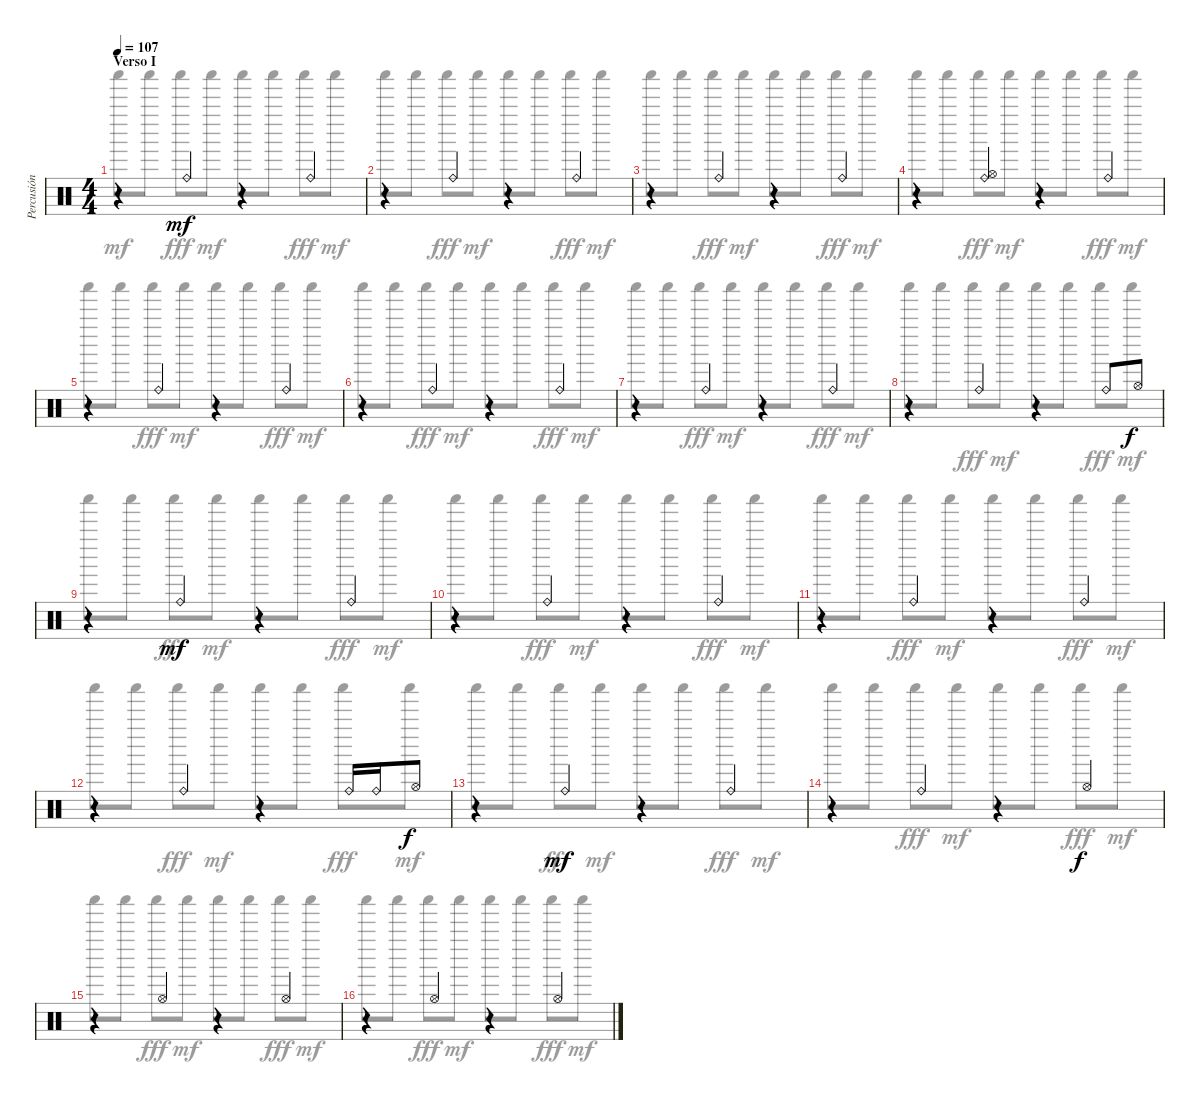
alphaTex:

\track ("Percusión" "Percusión") {instrument percussion}
\staff {score}
\articulation defaults
\voice
\ts (4 4)
\section ("" "Verso I")
\tempo 107
\clef neutral
\ks c
r.4{dy f} "Ride (bell)".4{dy mf} r.4 "Ride (bell)".4 |
r.4 "Ride (bell)".4 r.4 "Ride (bell)".4 |
r.4 "Ride (bell)".4 r.4 "Ride (bell)".4 |
r.4 ("Hi-Hat (open)" "Ride (bell)").4 r.4 "Ride (bell)".4 |
r.4 "Ride (bell)".4 r.4 "Ride (bell)".4 |
r.4 "Ride (bell)".4 r.4 "Ride (bell)".4 |
r.4 "Ride (bell)".4 r.4 "Ride (bell)".4 |
r.4 "Ride (bell)".4 r.4 "Ride (bell)".8 "Hi-Hat (open)".8{dy f} |
r.4 "Ride (bell)".4{dy mf} r.4 "Ride (bell)".4 |
r.4 "Ride (bell)".4 r.4 "Ride (bell)".4 |
r.4 "Ride (bell)".4 r.4 "Ride (bell)".4 |
r.4 "Ride (bell)".4 r.4 "Ride (bell)".16 "Ride (bell)".16 "Hi-Hat (open)".8{dy f} |
r.4 "Ride (bell)".4{dy mf} r.4 "Ride (bell)".4 |
r.4 "Ride (bell)".4 r.4 "Hi-Hat (open)".4{dy f} |
r.4 "Hi-Hat (open)".4 r.4 "Hi-Hat (open)".4 |
r.4 "Hi-Hat (open)".4 r.4 "Hi-Hat (open)".4
\voice
\clef neutral
\ottava regular
\simile none
\ks c "Shaker (hit)".8{dy mf} "Shaker (hit)".8 "Shaker (hit)".8{dy fff} "Shaker (hit)".8{dy mf} "Shaker (hit)".8 "Shaker (hit)".8 "Shaker (hit)".8{dy fff} "Shaker (hit)".8{dy mf}
|
"Shaker (hit)".8 "Shaker (hit)".8 "Shaker (hit)".8{dy fff} "Shaker (hit)".8{dy mf} "Shaker (hit)".8 "Shaker (hit)".8 "Shaker (hit)".8{dy fff} "Shaker (hit)".8{dy mf} |
"Shaker (hit)".8 "Shaker (hit)".8 "Shaker (hit)".8{dy fff} "Shaker (hit)".8{dy mf} "Shaker (hit)".8 "Shaker (hit)".8 "Shaker (hit)".8{dy fff} "Shaker (hit)".8{dy mf} |
"Shaker (hit)".8 "Shaker (hit)".8 "Shaker (hit)".8{dy fff} "Shaker (hit)".8{dy mf} "Shaker (hit)".8 "Shaker (hit)".8 "Shaker (hit)".8{dy fff} "Shaker (hit)".8{dy mf} |
"Shaker (hit)".8 "Shaker (hit)".8 "Shaker (hit)".8{dy fff} "Shaker (hit)".8{dy mf} "Shaker (hit)".8 "Shaker (hit)".8 "Shaker (hit)".8{dy fff} "Shaker (hit)".8{dy mf} |
"Shaker (hit)".8 "Shaker (hit)".8 "Shaker (hit)".8{dy fff} "Shaker (hit)".8{dy mf} "Shaker (hit)".8 "Shaker (hit)".8 "Shaker (hit)".8{dy fff} "Shaker (hit)".8{dy mf} |
"Shaker (hit)".8 "Shaker (hit)".8 "Shaker (hit)".8{dy fff} "Shaker (hit)".8{dy mf} "Shaker (hit)".8 "Shaker (hit)".8 "Shaker (hit)".8{dy fff} "Shaker (hit)".8{dy mf} |
"Shaker (hit)".8 "Shaker (hit)".8 "Shaker (hit)".8{dy fff} "Shaker (hit)".8{dy mf} "Shaker (hit)".8 "Shaker (hit)".8 "Shaker (hit)".8{dy fff} "Shaker (hit)".8{dy mf} |
"Shaker (hit)".8 "Shaker (hit)".8 "Shaker (hit)".8{dy fff} "Shaker (hit)".8{dy mf} "Shaker (hit)".8 "Shaker (hit)".8 "Shaker (hit)".8{dy fff} "Shaker (hit)".8{dy mf} |
"Shaker (hit)".8 "Shaker (hit)".8 "Shaker (hit)".8{dy fff} "Shaker (hit)".8{dy mf} "Shaker (hit)".8 "Shaker (hit)".8 "Shaker (hit)".8{dy fff} "Shaker (hit)".8{dy mf} |
"Shaker (hit)".8 "Shaker (hit)".8 "Shaker (hit)".8{dy fff} "Shaker (hit)".8{dy mf} "Shaker (hit)".8 "Shaker (hit)".8 "Shaker (hit)".8{dy fff} "Shaker (hit)".8{dy mf} |
"Shaker (hit)".8 "Shaker (hit)".8 "Shaker (hit)".8{dy fff} "Shaker (hit)".8{dy mf} "Shaker (hit)".8 "Shaker (hit)".8 "Shaker (hit)".8{dy fff} "Shaker (hit)".8{dy mf} |
"Shaker (hit)".8 "Shaker (hit)".8 "Shaker (hit)".8{dy fff} "Shaker (hit)".8{dy mf} "Shaker (hit)".8 "Shaker (hit)".8 "Shaker (hit)".8{dy fff} "Shaker (hit)".8{dy mf} |
"Shaker (hit)".8 "Shaker (hit)".8 "Shaker (hit)".8{dy fff} "Shaker (hit)".8{dy mf} "Shaker (hit)".8 "Shaker (hit)".8 "Shaker (hit)".8{dy fff} "Shaker (hit)".8{dy mf} |
"Shaker (hit)".8 "Shaker (hit)".8 "Shaker (hit)".8{dy fff} "Shaker (hit)".8{dy mf} "Shaker (hit)".8 "Shaker (hit)".8 "Shaker (hit)".8{dy fff} "Shaker (hit)".8{dy mf} |
"Shaker (hit)".8 "Shaker (hit)".8 "Shaker (hit)".8{dy fff} "Shaker (hit)".8{dy mf} "Shaker (hit)".8 "Shaker (hit)".8 "Shaker (hit)".8{dy fff} "Shaker (hit)".8{dy mf}
